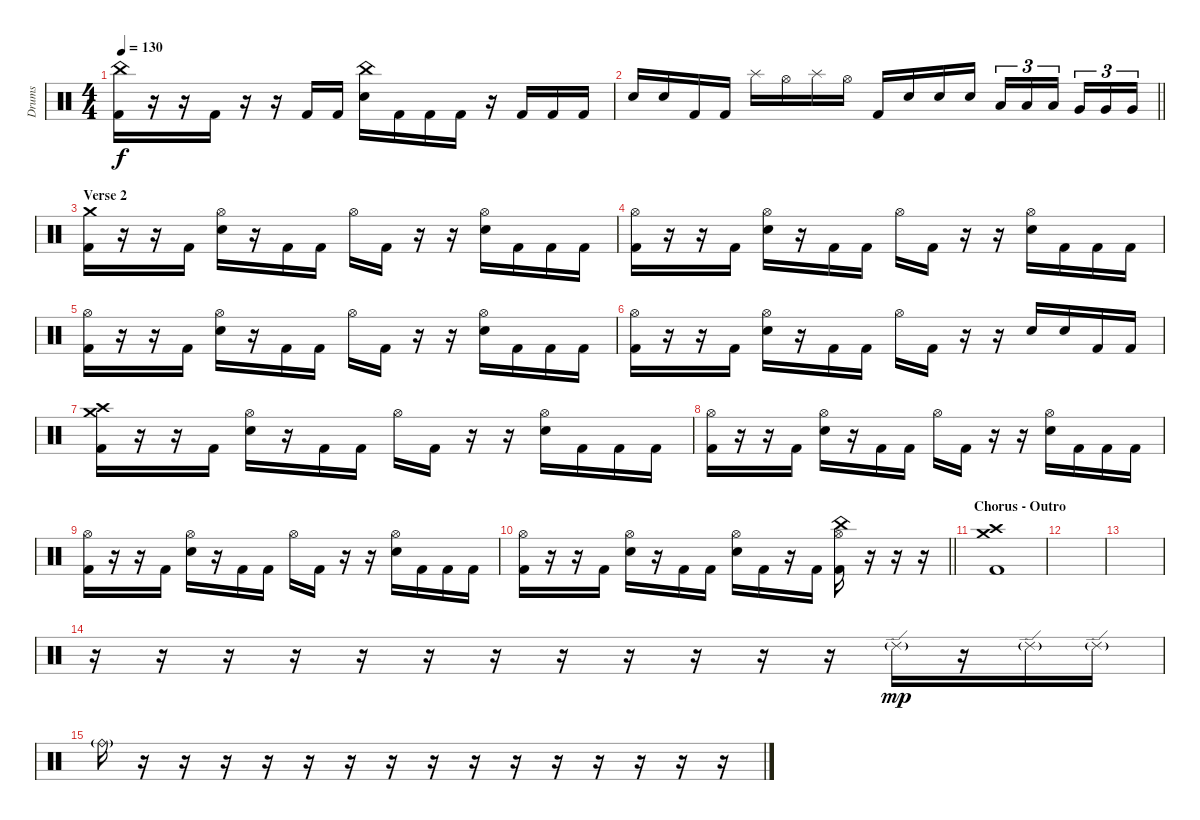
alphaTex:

\track ("Drums" "Drums") {instrument percussion}
\staff {score}
\articulation defaults
\ts (4 4)
\tempo 130
\clef neutral
\ks c
("China (hit)" "Kick (hit) 2").16{dy f} r.16 r.16 "Kick (hit) 2".16 r.16 r.16 "Kick (hit) 2".16 "Kick (hit) 2".16 ("China (hit)" "Electric Snare (hit)").16 "Kick (hit) 2".16 "Kick (hit) 2".16 "Kick (hit) 2".16 r.16 "Kick (hit) 2".16 "Kick (hit) 2".16 "Kick (hit) 2".16 |
\barLineRight lightlight "Electric Snare (hit)".16 "Electric Snare (hit)".16 "Kick (hit) 2".16 "Kick (hit) 2".16 "Splash (hit)".16 "Hi-Hat (open)".16 "Splash (hit)".16 "Hi-Hat (open)".16 "Kick (hit) 2".16 "Electric Snare (hit)".16 "Electric Snare (hit)".16 "Electric Snare (hit)".16 "Low Tom (hit)".16{tu (3 2)} "Low Tom (hit)".16{tu (3 2)} "Low Tom (hit)".16{tu (3 2) beam splitsecondary} "Very Low Tom (hit)".16{tu (3 2)} "Very Low Tom (hit)".16{tu (3 2)} "Very Low Tom (hit)".16{tu (3 2)}
|
\section ("" "Verse 2")
("Crash medium (hit)" "Kick (hit) 2").16 r.16 r.16 "Kick (hit) 2".16 ("Hi-Hat (open)" "Electric Snare (hit)").16 r.16 "Kick (hit) 2".16 "Kick (hit) 2".16 "Hi-Hat (open)".16 "Kick (hit) 2".16 r.16 r.16 ("Hi-Hat (open)" "Electric Snare (hit)").16 "Kick (hit) 2".16 "Kick (hit) 2".16 "Kick (hit) 2".16 |
("Hi-Hat (open)" "Kick (hit) 2").16 r.16 r.16 "Kick (hit) 2".16 ("Hi-Hat (open)" "Electric Snare (hit)").16 r.16 "Kick (hit) 2".16 "Kick (hit) 2".16 "Hi-Hat (open)".16 "Kick (hit) 2".16 r.16 r.16 ("Hi-Hat (open)" "Electric Snare (hit)").16 "Kick (hit) 2".16 "Kick (hit) 2".16 "Kick (hit) 2".16 |
("Hi-Hat (open)" "Kick (hit) 2").16 r.16 r.16 "Kick (hit) 2".16 ("Hi-Hat (open)" "Electric Snare (hit)").16 r.16 "Kick (hit) 2".16 "Kick (hit) 2".16 "Hi-Hat (open)".16 "Kick (hit) 2".16 r.16 r.16 ("Hi-Hat (open)" "Electric Snare (hit)").16 "Kick (hit) 2".16 "Kick (hit) 2".16 "Kick (hit) 2".16 |
("Hi-Hat (open)" "Kick (hit) 2").16 r.16 r.16 "Kick (hit) 2".16 ("Hi-Hat (open)" "Electric Snare (hit)").16 r.16 "Kick (hit) 2".16 "Kick (hit) 2".16 "Hi-Hat (open)".16 "Kick (hit) 2".16 r.16 r.16 "Electric Snare (hit)".16 "Electric Snare (hit)".16 "Kick (hit) 2".16 "Kick (hit) 2".16 |
("Crash medium (hit)" "Crash high (hit)" "Kick (hit) 2").16 r.16 r.16 "Kick (hit) 2".16 ("Hi-Hat (open)" "Electric Snare (hit)").16 r.16 "Kick (hit) 2".16 "Kick (hit) 2".16 "Hi-Hat (open)".16 "Kick (hit) 2".16 r.16 r.16 ("Hi-Hat (open)" "Electric Snare (hit)").16 "Kick (hit) 2".16 "Kick (hit) 2".16 "Kick (hit) 2".16 |
("Hi-Hat (open)" "Kick (hit) 2").16 r.16 r.16 "Kick (hit) 2".16 ("Hi-Hat (open)" "Electric Snare (hit)").16 r.16 "Kick (hit) 2".16 "Kick (hit) 2".16 "Hi-Hat (open)".16 "Kick (hit) 2".16 r.16 r.16 ("Hi-Hat (open)" "Electric Snare (hit)").16 "Kick (hit) 2".16 "Kick (hit) 2".16 "Kick (hit) 2".16 |
("Hi-Hat (open)" "Kick (hit) 2").16 r.16 r.16 "Kick (hit) 2".16 ("Hi-Hat (open)" "Electric Snare (hit)").16 r.16 "Kick (hit) 2".16 "Kick (hit) 2".16 "Hi-Hat (open)".16 "Kick (hit) 2".16 r.16 r.16 ("Hi-Hat (open)" "Electric Snare (hit)").16 "Kick (hit) 2".16 "Kick (hit) 2".16 "Kick (hit) 2".16 |
\barLineRight lightlight
("Hi-Hat (open)" "Kick (hit) 2").16 r.16 r.16 "Kick (hit) 2".16 ("Hi-Hat (open)" "Electric Snare (hit)").16 r.16 "Kick (hit) 2".16 "Kick (hit) 2".16 ("Hi-Hat (open)" "Electric Snare (hit)").16 "Kick (hit) 2".16 r.16 "Kick (hit) 2".16 ("China (hit)" "Hi-Hat (open)" "Kick (hit) 2").16 r.16 r.16 r.16 |
\section ("" "Chorus - Outro")
("Crash high (hit)" "Crash medium (hit)" "Kick (hit) 2").1 |
|
|
r.16 r.16 r.16 r.16 r.16 r.16 r.16 r.16 r.16 r.16 r.16 r.16 "Ride (edge) 2"{g}.16{dy mp} r.16 "Ride (edge) 2"{g}.16 "Ride (edge) 2"{g}.16 |
"Ride (bell)"{g}.16 r.16 r.16 r.16 r.16 r.16 r.16 r.16 r.16 r.16 r.16 r.16 r.16 r.16 r.16 r.16
